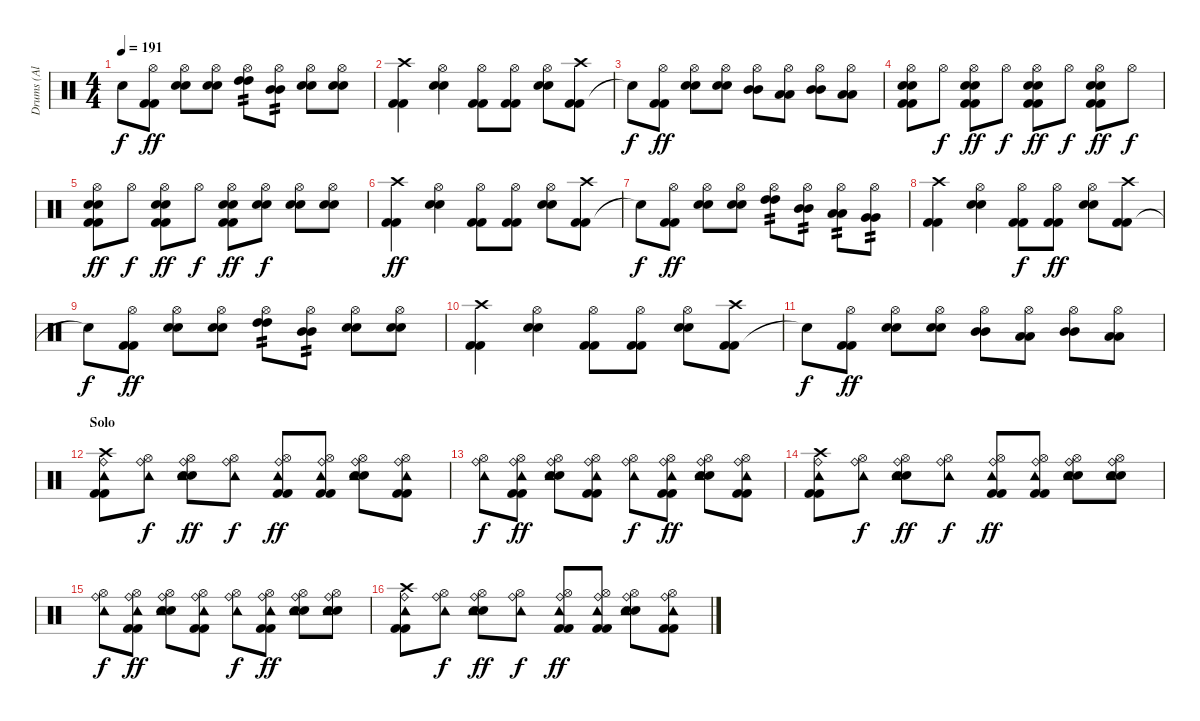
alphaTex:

\track ("Drums (Al Sobrante)" "Drums (Al ") {instrument percussion}
\staff {score}
\articulation defaults
\ts (4 4)
\tempo 191
\clef neutral
\ks c "Snare (hit)"{t}.8{dy f}
("Kick (hit) 2" "Kick (hit) 2" "Hi-Hat (open)").8{dy ff} ("Electric Snare (hit)" "Electric Snare (hit)" "Hi-Hat (open)").8 ("Electric Snare (hit)" "Electric Snare (hit)" "Hi-Hat (open)").8 ("High Tom (hit)" "High Tom (hit)" "Hi-Hat (open)").8{tp 2} ("Mid Tom (hit)" "Mid Tom (hit)" "Hi-Hat (open)").8{tp 2} ("Electric Snare (hit)" "Electric Snare (hit)" "Hi-Hat (open)").8 ("Electric Snare (hit)" "Electric Snare (hit)" "Hi-Hat (open)").8 |
("Kick (hit) 2" "Kick (hit) 2" "Crash high (hit)").4 ("Electric Snare (hit)" "Electric Snare (hit)" "Hi-Hat (open)").4 ("Kick (hit) 2" "Kick (hit) 2" "Hi-Hat (open)").8 ("Kick (hit) 2" "Kick (hit) 2" "Hi-Hat (open)").8 ("Electric Snare (hit)" "Electric Snare (hit)" "Hi-Hat (open)").8 ("Kick (hit) 2" "Kick (hit) 2" "Crash high (hit)").8 |
"Snare (hit)"{t}.8{dy f} ("Kick (hit) 2" "Kick (hit) 2" "Hi-Hat (open)").8{dy ff} ("Electric Snare (hit)" "Electric Snare (hit)" "Hi-Hat (open)").8 ("Electric Snare (hit)" "Electric Snare (hit)" "Hi-Hat (open)").8 ("Mid Tom (hit)" "Mid Tom (hit)" "Hi-Hat (open)").8 ("Low Tom (hit)" "Low Tom (hit)" "Hi-Hat (open)").8 ("Mid Tom (hit)" "Mid Tom (hit)" "Hi-Hat (open)").8 ("Low Tom (hit)" "Low Tom (hit)" "Hi-Hat (open)").8 |
("Kick (hit) 2" "Kick (hit) 2" "Electric Snare (hit)" "Electric Snare (hit)" "Hi-Hat (open)").8 "Hi-Hat (open)".8{dy f} ("Kick (hit) 2" "Kick (hit) 2" "Electric Snare (hit)" "Electric Snare (hit)" "Hi-Hat (open)").8{dy ff} "Hi-Hat (open)".8{dy f} ("Kick (hit) 2" "Kick (hit) 2" "Electric Snare (hit)" "Electric Snare (hit)" "Hi-Hat (open)").8{dy ff} "Hi-Hat (open)".8{dy f} ("Kick (hit) 2" "Kick (hit) 2" "Electric Snare (hit)" "Electric Snare (hit)" "Hi-Hat (open)").8{dy ff} "Hi-Hat (open)".8{dy f} |
("Kick (hit) 2" "Kick (hit) 2" "Electric Snare (hit)" "Electric Snare (hit)" "Hi-Hat (open)").8{dy ff} "Hi-Hat (open)".8{dy f} ("Kick (hit) 2" "Kick (hit) 2" "Electric Snare (hit)" "Electric Snare (hit)" "Hi-Hat (open)").8{dy ff} "Hi-Hat (open)".8{dy f} ("Kick (hit) 2" "Kick (hit) 2" "Electric Snare (hit)" "Electric Snare (hit)" "Hi-Hat (open)").8{dy ff} ("Electric Snare (hit)" "Electric Snare (hit)" "Hi-Hat (open)").8{dy f} ("Electric Snare (hit)" "Electric Snare (hit)" "Hi-Hat (open)").8 ("Electric Snare (hit)" "Electric Snare (hit)" "Hi-Hat (open)").8 |
("Kick (hit) 2" "Kick (hit) 2" "Crash high (hit)").4{dy ff} ("Electric Snare (hit)" "Electric Snare (hit)" "Hi-Hat (open)").4 ("Kick (hit) 2" "Kick (hit) 2" "Hi-Hat (open)").8 ("Kick (hit) 2" "Kick (hit) 2" "Hi-Hat (open)").8 ("Electric Snare (hit)" "Electric Snare (hit)" "Hi-Hat (open)").8 ("Kick (hit) 2" "Kick (hit) 2" "Crash high (hit)").8 |
"Snare (hit)"{t}.8{dy f} ("Kick (hit) 2" "Kick (hit) 2" "Hi-Hat (open)").8{dy ff} ("Electric Snare (hit)" "Electric Snare (hit)" "Hi-Hat (open)").8 ("Electric Snare (hit)" "Electric Snare (hit)" "Hi-Hat (open)").8 ("High Tom (hit)" "High Tom (hit)" "Hi-Hat (open)").8{tp 2} ("Mid Tom (hit)" "Mid Tom (hit)" "Hi-Hat (open)").8{tp 2} ("Low Tom (hit)" "Low Tom (hit)" "Hi-Hat (open)").8{tp 2} ("Very Low Tom (hit)" "Very Low Tom (hit)" "Hi-Hat (open)").8{tp 2} |
("Kick (hit) 2" "Kick (hit) 2" "Crash high (hit)").4 ("Electric Snare (hit)" "Electric Snare (hit)" "Hi-Hat (open)").4 ("Kick (hit) 2" "Kick (hit) 2" "Hi-Hat (open)").8{dy f} ("Kick (hit) 2" "Kick (hit) 2" "Hi-Hat (open)").8{dy ff} ("Electric Snare (hit)" "Electric Snare (hit)" "Hi-Hat (open)").8 ("Kick (hit) 2" "Kick (hit) 2" "Crash high (hit)").8 |
"Snare (hit)"{t}.8{dy f} ("Kick (hit) 2" "Kick (hit) 2" "Hi-Hat (open)").8{dy ff} ("Electric Snare (hit)" "Electric Snare (hit)" "Hi-Hat (open)").8 ("Electric Snare (hit)" "Electric Snare (hit)" "Hi-Hat (open)").8 ("High Tom (hit)" "High Tom (hit)" "Hi-Hat (open)").8{tp 2} ("Mid Tom (hit)" "Mid Tom (hit)" "Hi-Hat (open)").8{tp 2} ("Electric Snare (hit)" "Electric Snare (hit)" "Hi-Hat (open)").8 ("Electric Snare (hit)" "Electric Snare (hit)" "Hi-Hat (open)").8 |
("Kick (hit) 2" "Kick (hit) 2" "Crash high (hit)").4 ("Electric Snare (hit)" "Electric Snare (hit)" "Hi-Hat (open)").4 ("Kick (hit) 2" "Kick (hit) 2" "Hi-Hat (open)").8 ("Kick (hit) 2" "Kick (hit) 2" "Hi-Hat (open)").8 ("Electric Snare (hit)" "Electric Snare (hit)" "Hi-Hat (open)").8 ("Kick (hit) 2" "Kick (hit) 2" "Crash high (hit)").8 |
"Snare (hit)"{t}.8{dy f} ("Kick (hit) 2" "Kick (hit) 2" "Hi-Hat (open)").8{dy ff} ("Electric Snare (hit)" "Electric Snare (hit)" "Hi-Hat (open)").8 ("Electric Snare (hit)" "Electric Snare (hit)" "Hi-Hat (open)").8 ("Mid Tom (hit)" "Mid Tom (hit)" "Hi-Hat (open)").8 ("Low Tom (hit)" "Low Tom (hit)" "Hi-Hat (open)").8 ("Mid Tom (hit)" "Mid Tom (hit)" "Hi-Hat (open)").8 ("Low Tom (hit)" "Low Tom (hit)" "Hi-Hat (open)").8 |
\section ("" "Solo")
("Kick (hit) 2" "Kick (hit) 2" "Ride (bell)" "Tambourine (hit)" "Crash high (hit)").8 ("Ride (bell)" "Tambourine (hit)" "Hi-Hat (open)").8{dy f} ("Electric Snare (hit)" "Electric Snare (hit)" "Ride (bell)" "Tambourine (hit)" "Hi-Hat (open)").8{dy ff} ("Ride (bell)" "Tambourine (hit)" "Hi-Hat (open)").8{dy f} ("Kick (hit) 2" "Kick (hit) 2" "Ride (bell)" "Tambourine (hit)" "Hi-Hat (open)").8{dy ff} ("Kick (hit) 2" "Kick (hit) 2" "Ride (bell)" "Tambourine (hit)" "Hi-Hat (open)").8 ("Electric Snare (hit)" "Electric Snare (hit)" "Ride (bell)" "Tambourine (hit)" "Hi-Hat (open)").8 ("Kick (hit) 2" "Kick (hit) 2" "Ride (bell)" "Tambourine (hit)" "Hi-Hat (open)").8 |
("Ride (bell)" "Tambourine (hit)" "Hi-Hat (open)").8{dy f} ("Kick (hit) 2" "Kick (hit) 2" "Ride (bell)" "Tambourine (hit)" "Hi-Hat (open)").8{dy ff} ("Electric Snare (hit)" "Electric Snare (hit)" "Ride (bell)" "Tambourine (hit)" "Hi-Hat (open)").8 ("Kick (hit) 2" "Kick (hit) 2" "Ride (bell)" "Tambourine (hit)" "Hi-Hat (open)").8 ("Ride (bell)" "Tambourine (hit)" "Hi-Hat (open)").8{dy f} ("Kick (hit) 2" "Kick (hit) 2" "Ride (bell)" "Tambourine (hit)" "Hi-Hat (open)").8{dy ff} ("Electric Snare (hit)" "Electric Snare (hit)" "Ride (bell)" "Tambourine (hit)" "Hi-Hat (open)").8 ("Kick (hit) 2" "Kick (hit) 2" "Ride (bell)" "Tambourine (hit)" "Hi-Hat (open)").8 |
("Kick (hit) 2" "Kick (hit) 2" "Ride (bell)" "Tambourine (hit)" "Crash high (hit)").8 ("Ride (bell)" "Tambourine (hit)" "Hi-Hat (open)").8{dy f} ("Electric Snare (hit)" "Electric Snare (hit)" "Ride (bell)" "Tambourine (hit)" "Hi-Hat (open)").8{dy ff} ("Ride (bell)" "Tambourine (hit)" "Hi-Hat (open)").8{dy f} ("Kick (hit) 2" "Kick (hit) 2" "Ride (bell)" "Tambourine (hit)" "Hi-Hat (open)").8{dy ff} ("Kick (hit) 2" "Kick (hit) 2" "Ride (bell)" "Tambourine (hit)" "Hi-Hat (open)").8 ("Electric Snare (hit)" "Electric Snare (hit)" "Ride (bell)" "Tambourine (hit)" "Hi-Hat (open)").8 ("Electric Snare (hit)" "Electric Snare (hit)" "Ride (bell)" "Tambourine (hit)" "Hi-Hat (open)").8 |
("Ride (bell)" "Tambourine (hit)" "Hi-Hat (open)").8{dy f} ("Kick (hit) 2" "Kick (hit) 2" "Ride (bell)" "Tambourine (hit)" "Hi-Hat (open)").8{dy ff} ("Electric Snare (hit)" "Electric Snare (hit)" "Ride (bell)" "Tambourine (hit)" "Hi-Hat (open)").8 ("Kick (hit) 2" "Kick (hit) 2" "Ride (bell)" "Tambourine (hit)" "Hi-Hat (open)").8 ("Ride (bell)" "Tambourine (hit)" "Hi-Hat (open)").8{dy f} ("Kick (hit) 2" "Kick (hit) 2" "Ride (bell)" "Tambourine (hit)" "Hi-Hat (open)").8{dy ff} ("Electric Snare (hit)" "Electric Snare (hit)" "Ride (bell)" "Tambourine (hit)" "Hi-Hat (open)").8 ("Electric Snare (hit)" "Electric Snare (hit)" "Ride (bell)" "Tambourine (hit)" "Hi-Hat (open)").8 |
("Kick (hit) 2" "Kick (hit) 2" "Ride (bell)" "Tambourine (hit)" "Crash high (hit)").8 ("Ride (bell)" "Tambourine (hit)" "Hi-Hat (open)").8{dy f} ("Electric Snare (hit)" "Electric Snare (hit)" "Ride (bell)" "Tambourine (hit)" "Hi-Hat (open)").8{dy ff} ("Ride (bell)" "Tambourine (hit)" "Hi-Hat (open)").8{dy f} ("Kick (hit) 2" "Kick (hit) 2" "Ride (bell)" "Tambourine (hit)" "Hi-Hat (open)").8{dy ff} ("Kick (hit) 2" "Kick (hit) 2" "Ride (bell)" "Tambourine (hit)" "Hi-Hat (open)").8 ("Electric Snare (hit)" "Electric Snare (hit)" "Ride (bell)" "Tambourine (hit)" "Hi-Hat (open)").8 ("Kick (hit) 2" "Kick (hit) 2" "Ride (bell)" "Tambourine (hit)" "Hi-Hat (open)").8
